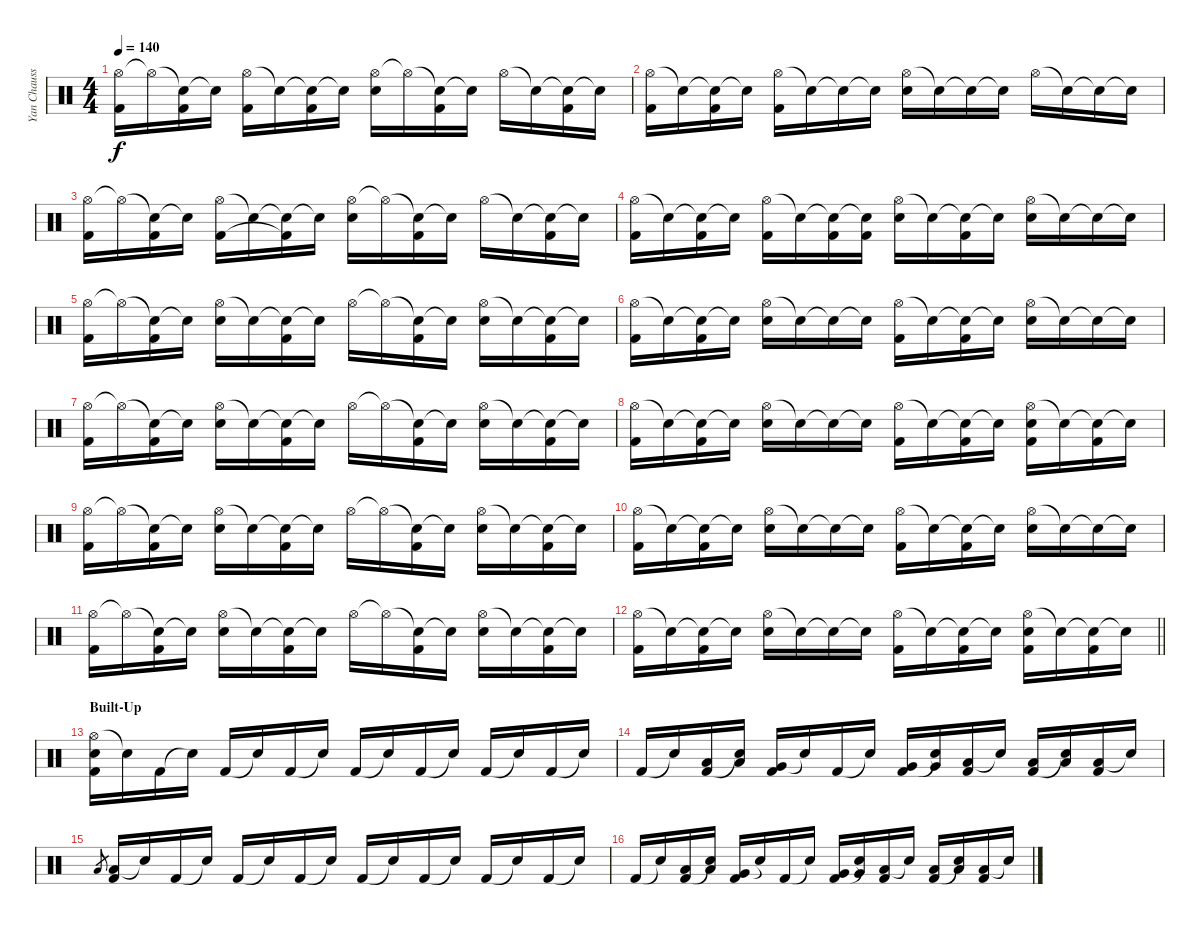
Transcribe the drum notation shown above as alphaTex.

\track ("Yan Chausse" "Yan Chauss") {instrument percussion}
\staff {score}
\articulation defaults
\ts (4 4)
\tempo 140
\clef neutral
\ks c
("Hi-Hat (open)" "Kick (hit) 2").16{dy f} "Hi-Hat (open)"{t}.16 ("Snare (hit)"{t} "Kick (hit) 2").16 "Snare (hit)"{t}.16 ("Hi-Hat (open)" "Kick (hit) 2").16 "Snare (hit)"{t}.16 ("Snare (hit)"{t} "Kick (hit) 2").16 "Snare (hit)"{t}.16 ("Hi-Hat (open)" "Snare (hit) 2").16 "Hi-Hat (open)"{t}.16 ("Snare (hit)"{t} "Kick (hit) 2").16 "Snare (hit)"{t}.16 "Hi-Hat (open)".16 "Snare (hit)"{t}.16 ("Snare (hit)"{t} "Kick (hit) 2").16 "Snare (hit)"{t}.16 |
("Hi-Hat (open)" "Kick (hit) 2").16 "Snare (hit)"{t}.16 ("Snare (hit)"{t} "Kick (hit) 2").16 "Snare (hit)"{t}.16 ("Hi-Hat (open)" "Kick (hit) 2").16 "Snare (hit)"{t}.16 "Snare (hit)"{t}.16 "Snare (hit)"{t}.16 ("Hi-Hat (open)" "Snare (hit) 2").16 "Snare (hit)"{t}.16 "Snare (hit)"{t}.16 "Snare (hit)"{t}.16 "Hi-Hat (open)".16 "Snare (hit)"{t}.16 "Snare (hit)"{t}.16 "Snare (hit)"{t}.16 |
("Hi-Hat (open)" "Kick (hit) 2").16 "Hi-Hat (open)"{t}.16 ("Snare (hit)"{t} "Kick (hit) 2").16 "Snare (hit)"{t}.16 ("Hi-Hat (open)" "Kick (hit) 2").16 "Snare (hit)"{t}.16 ("Snare (hit)"{t} "Kick (hit) 2"{t}).16 "Snare (hit)"{t}.16 ("Hi-Hat (open)" "Snare (hit) 2").16 "Hi-Hat (open)"{t}.16 ("Snare (hit)"{t} "Kick (hit) 2").16 "Snare (hit)"{t}.16 "Hi-Hat (open)".16 "Snare (hit)"{t}.16 ("Snare (hit)"{t} "Kick (hit) 2").16 "Snare (hit)"{t}.16 |
("Hi-Hat (open)" "Kick (hit) 2").16 "Snare (hit)"{t}.16 ("Snare (hit)"{t} "Kick (hit) 2").16 "Snare (hit)"{t}.16 ("Hi-Hat (open)" "Kick (hit) 2").16 "Snare (hit)"{t}.16 ("Snare (hit)"{t} "Kick (hit) 2").16 ("Snare (hit)"{t} "Kick (hit) 2").16 ("Hi-Hat (open)" "Snare (hit) 2").16 "Snare (hit)"{t}.16 ("Snare (hit)"{t} "Kick (hit) 2").16 "Snare (hit)"{t}.16 ("Hi-Hat (open)" "Snare (hit) 2").16 "Snare (hit)"{t}.16 "Snare (hit)"{t}.16 "Snare (hit)"{t}.16 |
("Hi-Hat (open)" "Kick (hit) 2").16 "Hi-Hat (open)"{t}.16 ("Snare (hit)"{t} "Kick (hit) 2").16 "Snare (hit)"{t}.16 ("Hi-Hat (open)" "Snare (hit) 2").16 "Snare (hit)"{t}.16 ("Snare (hit)"{t} "Kick (hit) 2").16 "Snare (hit)"{t}.16 "Hi-Hat (open)".16 "Hi-Hat (open)"{t}.16 ("Snare (hit)"{t} "Kick (hit) 2").16 "Snare (hit)"{t}.16 ("Hi-Hat (open)" "Snare (hit) 2").16 "Snare (hit)"{t}.16 ("Snare (hit)"{t} "Kick (hit) 2").16 "Snare (hit)"{t}.16 |
("Hi-Hat (open)" "Kick (hit) 2").16 "Snare (hit)"{t}.16 ("Snare (hit)"{t} "Kick (hit) 2").16 "Snare (hit)"{t}.16 ("Hi-Hat (open)" "Snare (hit) 2").16 "Snare (hit)"{t}.16 "Snare (hit)"{t}.16 "Snare (hit)"{t}.16 ("Hi-Hat (open)" "Kick (hit) 2").16 "Snare (hit)"{t}.16 ("Snare (hit)"{t} "Kick (hit) 2").16 "Snare (hit)"{t}.16 ("Hi-Hat (open)" "Snare (hit) 2").16 "Snare (hit)"{t}.16 "Snare (hit)"{t}.16 "Snare (hit)"{t}.16 |
("Hi-Hat (open)" "Kick (hit) 2").16 "Hi-Hat (open)"{t}.16 ("Snare (hit)"{t} "Kick (hit) 2").16 "Snare (hit)"{t}.16 ("Hi-Hat (open)" "Snare (hit) 2").16 "Snare (hit)"{t}.16 ("Snare (hit)"{t} "Kick (hit) 2").16 "Snare (hit)"{t}.16 "Hi-Hat (open)".16 "Hi-Hat (open)"{t}.16 ("Snare (hit)"{t} "Kick (hit) 2").16 "Snare (hit)"{t}.16 ("Hi-Hat (open)" "Snare (hit) 2").16 "Snare (hit)"{t}.16 ("Snare (hit)"{t} "Kick (hit) 2").16 "Snare (hit)"{t}.16 |
("Hi-Hat (open)" "Kick (hit) 2").16 "Snare (hit)"{t}.16 ("Snare (hit)"{t} "Kick (hit) 2").16 "Snare (hit)"{t}.16 ("Hi-Hat (open)" "Snare (hit) 2").16 "Snare (hit)"{t}.16 "Snare (hit)"{t}.16 "Snare (hit)"{t}.16 ("Hi-Hat (open)" "Kick (hit) 2").16 "Snare (hit)"{t}.16 ("Snare (hit)"{t} "Kick (hit) 2").16 "Snare (hit)"{t}.16 ("Hi-Hat (open)" "Snare (hit) 2" "Kick (hit) 2").16 "Snare (hit)"{t}.16 ("Snare (hit)"{t} "Kick (hit) 2").16 "Snare (hit)"{t}.16 |
("Hi-Hat (open)" "Kick (hit) 2").16 "Hi-Hat (open)"{t}.16 ("Snare (hit)"{t} "Kick (hit) 2").16 "Snare (hit)"{t}.16 ("Hi-Hat (open)" "Snare (hit) 2").16 "Snare (hit)"{t}.16 ("Snare (hit)"{t} "Kick (hit) 2").16 "Snare (hit)"{t}.16 "Hi-Hat (open)".16 "Hi-Hat (open)"{t}.16 ("Snare (hit)"{t} "Kick (hit) 2").16 "Snare (hit)"{t}.16 ("Hi-Hat (open)" "Snare (hit) 2").16 "Snare (hit)"{t}.16 ("Snare (hit)"{t} "Kick (hit) 2").16 "Snare (hit)"{t}.16 |
("Hi-Hat (open)" "Kick (hit) 2").16 "Snare (hit)"{t}.16 ("Snare (hit)"{t} "Kick (hit) 2").16 "Snare (hit)"{t}.16 ("Hi-Hat (open)" "Snare (hit) 2").16 "Snare (hit)"{t}.16 "Snare (hit)"{t}.16 "Snare (hit)"{t}.16 ("Hi-Hat (open)" "Kick (hit) 2").16 "Snare (hit)"{t}.16 ("Snare (hit)"{t} "Kick (hit) 2").16 "Snare (hit)"{t}.16 ("Hi-Hat (open)" "Snare (hit) 2").16 "Snare (hit)"{t}.16 "Snare (hit)"{t}.16 "Snare (hit)"{t}.16 |
("Hi-Hat (open)" "Kick (hit) 2").16 "Hi-Hat (open)"{t}.16 ("Snare (hit)"{t} "Kick (hit) 2").16 "Snare (hit)"{t}.16 ("Hi-Hat (open)" "Snare (hit) 2").16 "Snare (hit)"{t}.16 ("Snare (hit)"{t} "Kick (hit) 2").16 "Snare (hit)"{t}.16 "Hi-Hat (open)".16 "Hi-Hat (open)"{t}.16 ("Snare (hit)"{t} "Kick (hit) 2").16 "Snare (hit)"{t}.16 ("Hi-Hat (open)" "Snare (hit) 2").16 "Snare (hit)"{t}.16 ("Snare (hit)"{t} "Kick (hit) 2").16 "Snare (hit)"{t}.16 |
\barLineRight lightlight
("Hi-Hat (open)" "Kick (hit) 2").16 "Snare (hit)"{t}.16 ("Snare (hit)"{t} "Kick (hit) 2").16 "Snare (hit)"{t}.16 ("Hi-Hat (open)" "Snare (hit) 2").16 "Snare (hit)"{t}.16 "Snare (hit)"{t}.16 "Snare (hit)"{t}.16 ("Hi-Hat (open)" "Kick (hit) 2").16 "Snare (hit)"{t}.16 ("Snare (hit)"{t} "Kick (hit) 2").16 "Snare (hit)"{t}.16 ("Hi-Hat (open)" "Snare (hit) 2" "Kick (hit) 2").16 "Snare (hit)"{t}.16 ("Snare (hit)"{t} "Kick (hit) 2").16 "Snare (hit)"{t}.16 |
\section ("" "Built-Up")
("Hi-Hat (open)" "Snare (hit) 2" "Kick (hit) 2").16 "Snare (hit)"{t}.16 "Kick (hit) 2".16 "Snare (hit)"{t}.16 "Kick (hit) 2".16 "Snare (hit)"{t}.16 "Kick (hit) 2".16 "Snare (hit)"{t}.16 "Kick (hit) 2".16 "Snare (hit)"{t}.16 "Kick (hit) 2".16 "Snare (hit)"{t}.16 "Kick (hit) 2".16 "Snare (hit)"{t}.16 "Kick (hit) 2".16 "Snare (hit)"{t}.16 |
"Kick (hit) 2".16 "Snare (hit)"{t}.16 ("Low Tom (hit)" "Kick (hit) 2").16 ("Low Tom (hit)" "Snare (hit)"{t}).16 ("Very Low Tom (hit)" "Kick (hit) 2").16 "Snare (hit)"{t}.16 "Kick (hit) 2".16 "Snare (hit)"{t}.16 ("Very Low Tom (hit)" "Kick (hit) 2").16 ("Very Low Tom (hit)" "Snare (hit)"{t}).16 ("Low Floor Tom (hit)" "Kick (hit) 2").16 "Snare (hit)"{t}.16 ("Low Floor Tom (hit)" "Kick (hit) 2").16 ("Low Floor Tom (hit)" "Snare (hit)"{t}).16 ("Low Floor Tom (hit)" "Kick (hit) 2").16 "Snare (hit)"{t}.16 |
"Low Floor Tom (hit)".8{gr} ("Low Floor Tom (hit)" "Kick (hit) 2").16 "Snare (hit)"{t}.16 "Kick (hit) 2".16 "Snare (hit)"{t}.16 "Kick (hit) 2".16 "Snare (hit)"{t}.16 "Kick (hit) 2".16 "Snare (hit)"{t}.16 "Kick (hit) 2".16 "Snare (hit)"{t}.16 "Kick (hit) 2".16 "Snare (hit)"{t}.16 "Kick (hit) 2".16 "Snare (hit)"{t}.16 "Kick (hit) 2".16 "Snare (hit)"{t}.16 |
"Kick (hit) 2".16 "Snare (hit)"{t}.16 ("Low Tom (hit)" "Kick (hit) 2").16 ("Low Tom (hit)" "Snare (hit)"{t}).16 ("Very Low Tom (hit)" "Kick (hit) 2").16 "Snare (hit)"{t}.16 "Kick (hit) 2".16 "Snare (hit)"{t}.16 ("Very Low Tom (hit)" "Kick (hit) 2").16 ("Very Low Tom (hit)" "Snare (hit)"{t}).16 ("Low Floor Tom (hit)" "Kick (hit) 2").16 "Snare (hit)"{t}.16 ("Low Floor Tom (hit)" "Kick (hit) 2").16 ("Low Floor Tom (hit)" "Snare (hit)"{t}).16 ("Low Floor Tom (hit)" "Kick (hit) 2").16 "Snare (hit)"{t}.16
